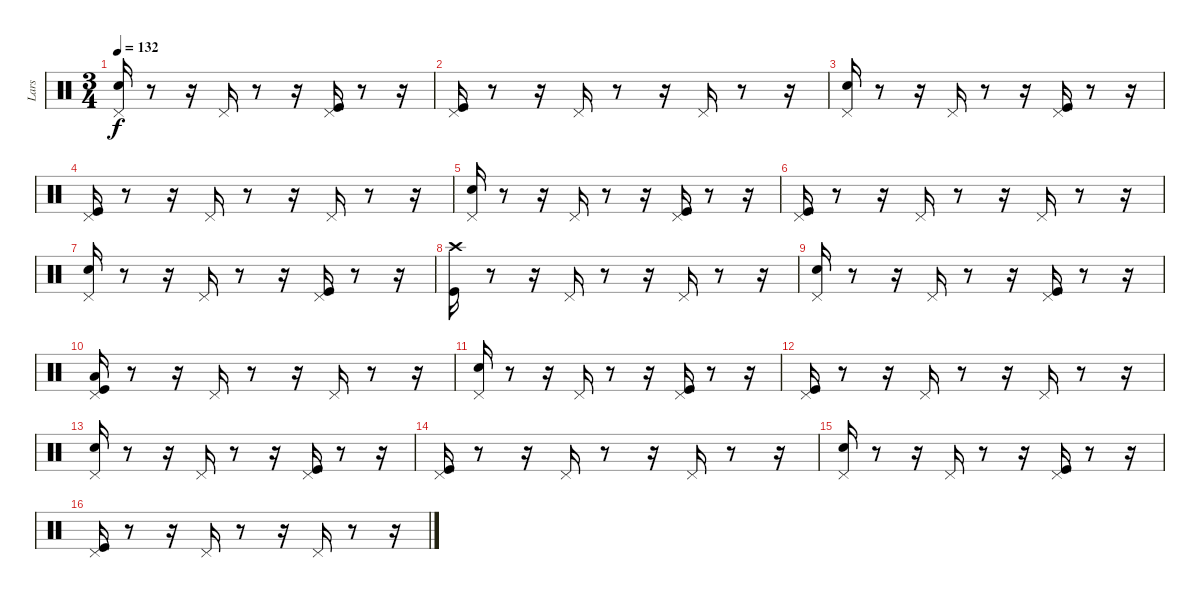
\track ("Lars" "Lars") {instrument percussion}
\staff {score}
\articulation defaults
\ts (3 4)
\tempo 132
\clef neutral
\ks c
("Pedal Hi-Hat (hit)" "Snare (hit) 2").16{dy f} r.8 r.16 "Pedal Hi-Hat (hit)".16 r.8 r.16 ("Pedal Hi-Hat (hit)" "Kick (hit)").16 r.8 r.16 |
("Pedal Hi-Hat (hit)" "Kick (hit)").16 r.8 r.16 "Pedal Hi-Hat (hit)".16 r.8 r.16 "Pedal Hi-Hat (hit)".16 r.8 r.16 |
("Pedal Hi-Hat (hit)" "Snare (hit) 2").16 r.8 r.16 "Pedal Hi-Hat (hit)".16 r.8 r.16 ("Pedal Hi-Hat (hit)" "Kick (hit)").16 r.8 r.16 |
("Pedal Hi-Hat (hit)" "Kick (hit)").16 r.8 r.16 "Pedal Hi-Hat (hit)".16 r.8 r.16 "Pedal Hi-Hat (hit)".16 r.8 r.16 |
("Pedal Hi-Hat (hit)" "Snare (hit) 2").16 r.8 r.16 "Pedal Hi-Hat (hit)".16 r.8 r.16 ("Pedal Hi-Hat (hit)" "Kick (hit)").16 r.8 r.16 |
("Pedal Hi-Hat (hit)" "Kick (hit)").16 r.8 r.16 "Pedal Hi-Hat (hit)".16 r.8 r.16 "Pedal Hi-Hat (hit)".16 r.8 r.16 |
("Pedal Hi-Hat (hit)" "Snare (hit) 2").16 r.8 r.16 "Pedal Hi-Hat (hit)".16 r.8 r.16 ("Pedal Hi-Hat (hit)" "Kick (hit)").16 r.8 r.16 |
("Crash high (hit)" "Kick (hit)").16 r.8 r.16 "Pedal Hi-Hat (hit)".16 r.8 r.16 "Pedal Hi-Hat (hit)".16 r.8 r.16 |
("Pedal Hi-Hat (hit)" "Snare (hit) 2").16 r.8 r.16 "Pedal Hi-Hat (hit)".16 r.8 r.16 ("Pedal Hi-Hat (hit)" "Kick (hit)").16 r.8 r.16 |
("Pedal Hi-Hat (hit)" "Low Floor Tom (hit)" "Kick (hit)").16 r.8 r.16 "Pedal Hi-Hat (hit)".16 r.8 r.16 "Pedal Hi-Hat (hit)".16 r.8 r.16 |
("Pedal Hi-Hat (hit)" "Snare (hit) 2").16 r.8 r.16 "Pedal Hi-Hat (hit)".16 r.8 r.16 ("Pedal Hi-Hat (hit)" "Kick (hit)").16 r.8 r.16 |
("Pedal Hi-Hat (hit)" "Kick (hit)").16 r.8 r.16 "Pedal Hi-Hat (hit)".16 r.8 r.16 "Pedal Hi-Hat (hit)".16 r.8 r.16 |
("Pedal Hi-Hat (hit)" "Snare (hit) 2").16 r.8 r.16 "Pedal Hi-Hat (hit)".16 r.8 r.16 ("Pedal Hi-Hat (hit)" "Kick (hit)").16 r.8 r.16 |
("Pedal Hi-Hat (hit)" "Kick (hit)").16 r.8 r.16 "Pedal Hi-Hat (hit)".16 r.8 r.16 "Pedal Hi-Hat (hit)".16 r.8 r.16 |
("Pedal Hi-Hat (hit)" "Snare (hit) 2").16 r.8 r.16 "Pedal Hi-Hat (hit)".16 r.8 r.16 ("Pedal Hi-Hat (hit)" "Kick (hit)").16 r.8 r.16 |
("Pedal Hi-Hat (hit)" "Kick (hit)").16 r.8 r.16 "Pedal Hi-Hat (hit)".16 r.8 r.16 "Pedal Hi-Hat (hit)".16 r.8 r.16
